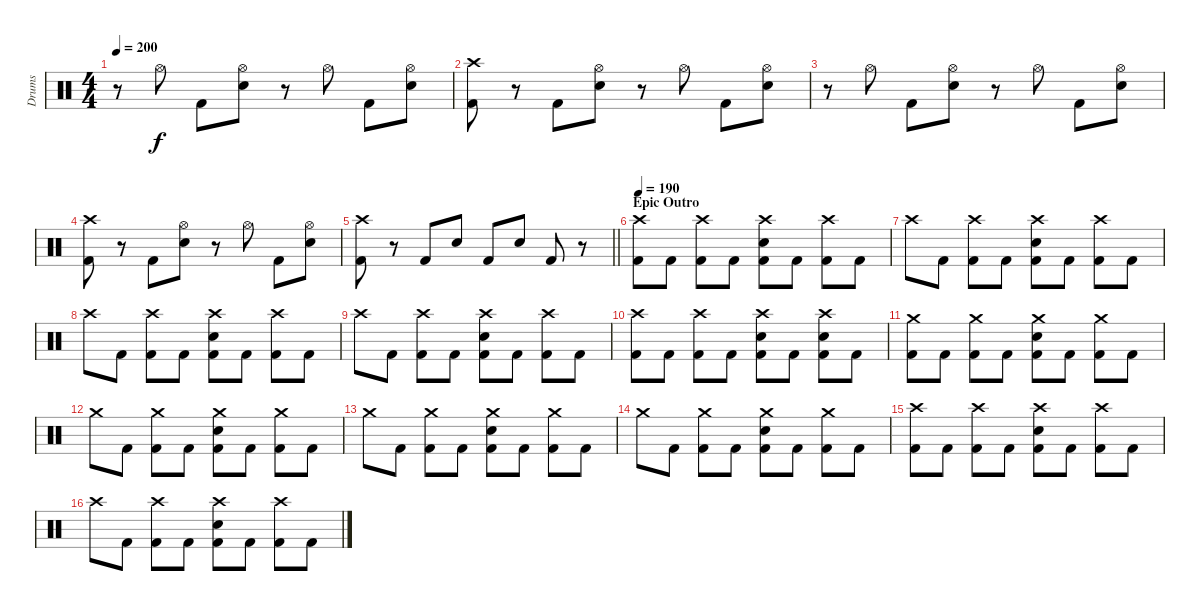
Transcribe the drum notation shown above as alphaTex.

\track ("Drums" "Drums") {instrument percussion}
\staff {score}
\articulation defaults
\ts (4 4)
\tempo 200
\clef neutral
\ks c
r.8{dy f} "Hi-Hat (open)".8 "Kick (hit) 2".8 ("Hi-Hat (open)" "Electric Snare (hit)").8 r.8 "Hi-Hat (open)".8 "Kick (hit) 2".8 ("Hi-Hat (open)" "Electric Snare (hit)").8 |
("Crash high (hit)" "Kick (hit) 2").8 r.8 "Kick (hit) 2".8 ("Hi-Hat (open)" "Electric Snare (hit)").8 r.8 "Hi-Hat (open)".8 "Kick (hit) 2".8 ("Hi-Hat (open)" "Electric Snare (hit)").8 |
r.8 "Hi-Hat (open)".8 "Kick (hit) 2".8 ("Hi-Hat (open)" "Electric Snare (hit)").8 r.8 "Hi-Hat (open)".8 "Kick (hit) 2".8 ("Hi-Hat (open)" "Electric Snare (hit)").8 |
("Crash high (hit)" "Kick (hit) 2").8 r.8 "Kick (hit) 2".8 ("Hi-Hat (open)" "Electric Snare (hit)").8 r.8 "Hi-Hat (open)".8 "Kick (hit) 2".8 ("Hi-Hat (open)" "Electric Snare (hit)").8 |
\barLineRight lightlight
("Crash high (hit)" "Kick (hit) 2").8 r.8 "Kick (hit) 2".8 "Electric Snare (hit)".8 "Kick (hit) 2".8 "Electric Snare (hit)".8 "Kick (hit) 2".8 r.8 |
\section ("" "Epic Outro")
\tempo 190
("Crash high (hit)" "Kick (hit) 2").8 "Kick (hit) 2".8 ("Crash high (hit)" "Kick (hit) 2").8 "Kick (hit) 2".8 ("Crash high (hit)" "Electric Snare (hit)" "Kick (hit) 2").8 "Kick (hit) 2".8 ("Crash high (hit)" "Kick (hit) 2").8 "Kick (hit) 2".8 |
"Crash high (hit)".8 "Kick (hit) 2".8 ("Crash high (hit)" "Kick (hit) 2").8 "Kick (hit) 2".8 ("Crash high (hit)" "Electric Snare (hit)" "Kick (hit) 2").8 "Kick (hit) 2".8 ("Crash high (hit)" "Kick (hit) 2").8 "Kick (hit) 2".8 |
"Crash high (hit)".8 "Kick (hit) 2".8 ("Crash high (hit)" "Kick (hit) 2").8 "Kick (hit) 2".8 ("Crash high (hit)" "Electric Snare (hit)" "Kick (hit) 2").8 "Kick (hit) 2".8 ("Crash high (hit)" "Kick (hit) 2").8 "Kick (hit) 2".8 |
"Crash high (hit)".8 "Kick (hit) 2".8 ("Crash high (hit)" "Kick (hit) 2").8 "Kick (hit) 2".8 ("Crash high (hit)" "Electric Snare (hit)" "Kick (hit) 2").8 "Kick (hit) 2".8 ("Crash high (hit)" "Kick (hit) 2").8 "Kick (hit) 2".8 |
("Crash high (hit)" "Kick (hit) 2").8 "Kick (hit) 2".8 ("Crash high (hit)" "Kick (hit) 2").8 "Kick (hit) 2".8 ("Crash high (hit)" "Electric Snare (hit)" "Kick (hit) 2").8 "Kick (hit) 2".8 ("Crash high (hit)" "Electric Snare (hit)" "Kick (hit) 2").8 "Kick (hit) 2".8 |
("Crash medium (hit)" "Kick (hit) 2").8 "Kick (hit) 2".8 ("Crash medium (hit)" "Kick (hit) 2").8 "Kick (hit) 2".8 ("Crash medium (hit)" "Electric Snare (hit)" "Kick (hit) 2").8 "Kick (hit) 2".8 ("Crash medium (hit)" "Kick (hit) 2").8 "Kick (hit) 2".8 |
"Crash medium (hit)".8 "Kick (hit) 2".8 ("Crash medium (hit)" "Kick (hit) 2").8 "Kick (hit) 2".8 ("Crash medium (hit)" "Electric Snare (hit)" "Kick (hit) 2").8 "Kick (hit) 2".8 ("Crash medium (hit)" "Kick (hit) 2").8 "Kick (hit) 2".8 |
"Crash medium (hit)".8 "Kick (hit) 2".8 ("Crash medium (hit)" "Kick (hit) 2").8 "Kick (hit) 2".8 ("Crash medium (hit)" "Electric Snare (hit)" "Kick (hit) 2").8 "Kick (hit) 2".8 ("Crash medium (hit)" "Kick (hit) 2").8 "Kick (hit) 2".8 |
"Crash medium (hit)".8 "Kick (hit) 2".8 ("Crash medium (hit)" "Kick (hit) 2").8 "Kick (hit) 2".8 ("Crash medium (hit)" "Electric Snare (hit)" "Kick (hit) 2").8 "Kick (hit) 2".8 ("Crash medium (hit)" "Kick (hit) 2").8 "Kick (hit) 2".8 |
("Crash high (hit)" "Kick (hit) 2").8 "Kick (hit) 2".8 ("Crash high (hit)" "Kick (hit) 2").8 "Kick (hit) 2".8 ("Crash high (hit)" "Electric Snare (hit)" "Kick (hit) 2").8 "Kick (hit) 2".8 ("Crash high (hit)" "Kick (hit) 2").8 "Kick (hit) 2".8 |
"Crash high (hit)".8 "Kick (hit) 2".8 ("Crash high (hit)" "Kick (hit) 2").8 "Kick (hit) 2".8 ("Crash high (hit)" "Electric Snare (hit)" "Kick (hit) 2").8 "Kick (hit) 2".8 ("Crash high (hit)" "Kick (hit) 2").8 "Kick (hit) 2".8
